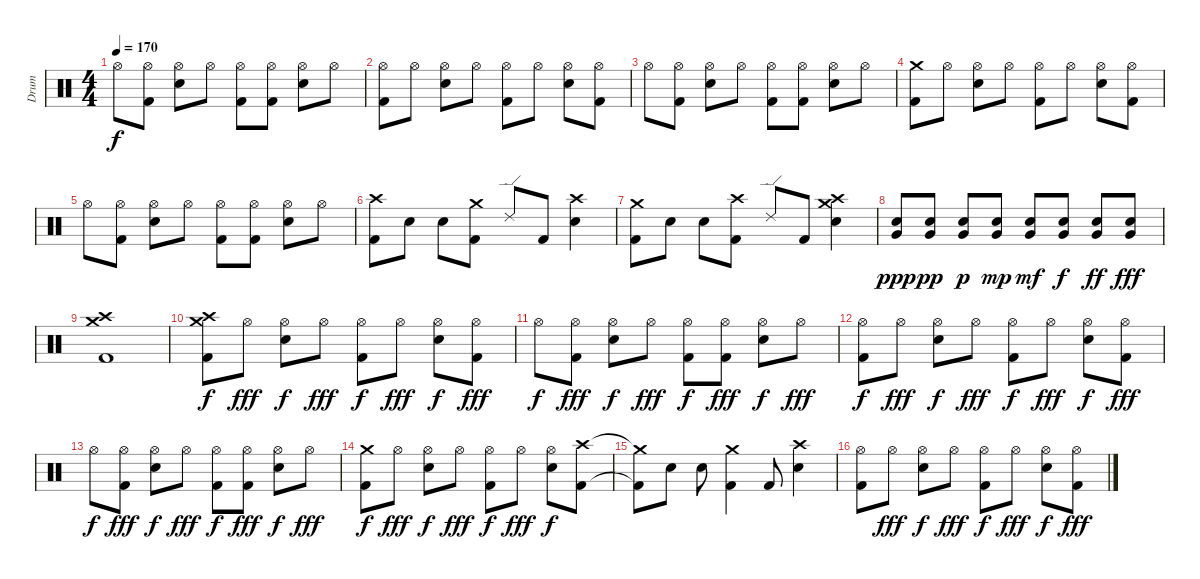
\track ("Drum" "Drum") {instrument percussion}
\staff {score}
\articulation defaults
\ts (4 4)
\tempo 170
\clef neutral
\ks c "Hi-Hat (open)".8{dy f}
("Kick (hit) 2" "Hi-Hat (open)").8 ("Electric Snare (hit)" "Hi-Hat (open)").8 "Hi-Hat (open)".8 ("Kick (hit) 2" "Hi-Hat (open)").8 ("Kick (hit) 2" "Hi-Hat (open)").8 ("Electric Snare (hit)" "Hi-Hat (open)").8 "Hi-Hat (open)".8 |
("Kick (hit) 2" "Hi-Hat (open)").8 "Hi-Hat (open)".8 ("Electric Snare (hit)" "Hi-Hat (open)").8 "Hi-Hat (open)".8 ("Kick (hit) 2" "Hi-Hat (open)").8 "Hi-Hat (open)".8 ("Electric Snare (hit)" "Hi-Hat (open)").8 ("Kick (hit) 2" "Hi-Hat (open)").8 |
"Hi-Hat (open)".8 ("Kick (hit) 2" "Hi-Hat (open)").8 ("Electric Snare (hit)" "Hi-Hat (open)").8 "Hi-Hat (open)".8 ("Kick (hit) 2" "Hi-Hat (open)").8 ("Kick (hit) 2" "Hi-Hat (open)").8 ("Electric Snare (hit)" "Hi-Hat (open)").8 "Hi-Hat (open)".8 |
("Kick (hit) 2" "Crash medium (hit)").8 "Hi-Hat (open)".8 ("Electric Snare (hit)" "Hi-Hat (open)").8 "Hi-Hat (open)".8 ("Kick (hit) 2" "Hi-Hat (open)").8 "Hi-Hat (open)".8 ("Electric Snare (hit)" "Hi-Hat (open)").8 ("Kick (hit) 2" "Hi-Hat (open)").8 |
"Hi-Hat (open)".8 ("Kick (hit) 2" "Hi-Hat (open)").8 ("Electric Snare (hit)" "Hi-Hat (open)").8 "Hi-Hat (open)".8 ("Kick (hit) 2" "Hi-Hat (open)").8 ("Kick (hit) 2" "Hi-Hat (open)").8 ("Electric Snare (hit)" "Hi-Hat (open)").8 "Hi-Hat (open)".8 |
("Kick (hit) 2" "Crash high (hit)").8 "Electric Snare (hit)".8 "Electric Snare (hit)".8 ("Kick (hit) 2" "Crash medium (hit)").8 "Ride (edge) 2".8 "Kick (hit) 2".8 ("Electric Snare (hit)" "Crash high (hit)").4 |
("Kick (hit) 2" "Crash medium (hit)").8 "Electric Snare (hit)".8 "Electric Snare (hit)".8 ("Kick (hit) 2" "Crash high (hit)").8 "Ride (edge) 2".8 "Kick (hit) 2".8 ("Electric Snare (hit)" "Crash medium (hit)" "Crash high (hit)").4 |
("Electric Snare (hit)" "Very Low Tom (hit)").8{dy ppp} ("Electric Snare (hit)" "Very Low Tom (hit)").8{dy pp} ("Electric Snare (hit)" "Very Low Tom (hit)").8{dy p} ("Electric Snare (hit)" "Very Low Tom (hit)").8{dy mp} ("Electric Snare (hit)" "Very Low Tom (hit)").8{dy mf} ("Electric Snare (hit)" "Very Low Tom (hit)").8{dy f} ("Electric Snare (hit)" "Very Low Tom (hit)").8{dy ff} ("Electric Snare (hit)" "Very Low Tom (hit)").8{dy fff} |
("Crash high (hit)" "Crash medium (hit)" "Kick (hit) 2").1 |
("Kick (hit) 2" "Crash medium (hit)" "Crash high (hit)").8{dy f} "Hi-Hat (open)".8{dy fff} ("Electric Snare (hit)" "Hi-Hat (open)").8{dy f} "Hi-Hat (open)".8{dy fff} ("Kick (hit) 2" "Hi-Hat (open)").8{dy f} "Hi-Hat (open)".8{dy fff} ("Electric Snare (hit)" "Hi-Hat (open)").8{dy f} ("Kick (hit) 2" "Hi-Hat (open)").8{dy fff} |
"Hi-Hat (open)".8{dy f} ("Kick (hit) 2" "Hi-Hat (open)").8{dy fff} ("Electric Snare (hit)" "Hi-Hat (open)").8{dy f} "Hi-Hat (open)".8{dy fff} ("Kick (hit) 2" "Hi-Hat (open)").8{dy f} ("Kick (hit) 2" "Hi-Hat (open)").8{dy fff} ("Electric Snare (hit)" "Hi-Hat (open)").8{dy f} "Hi-Hat (open)".8{dy fff} |
("Kick (hit) 2" "Hi-Hat (open)").8{dy f} "Hi-Hat (open)".8{dy fff} ("Electric Snare (hit)" "Hi-Hat (open)").8{dy f} "Hi-Hat (open)".8{dy fff} ("Kick (hit) 2" "Hi-Hat (open)").8{dy f} "Hi-Hat (open)".8{dy fff} ("Electric Snare (hit)" "Hi-Hat (open)").8{dy f} ("Kick (hit) 2" "Hi-Hat (open)").8{dy fff} |
"Hi-Hat (open)".8{dy f} ("Kick (hit) 2" "Hi-Hat (open)").8{dy fff} ("Electric Snare (hit)" "Hi-Hat (open)").8{dy f} "Hi-Hat (open)".8{dy fff} ("Kick (hit) 2" "Hi-Hat (open)").8{dy f} ("Kick (hit) 2" "Hi-Hat (open)").8{dy fff} ("Electric Snare (hit)" "Hi-Hat (open)").8{dy f} "Hi-Hat (open)".8{dy fff} |
("Kick (hit) 2" "Crash medium (hit)").8{dy f} "Hi-Hat (open)".8{dy fff} ("Electric Snare (hit)" "Hi-Hat (open)").8{dy f} "Hi-Hat (open)".8{dy fff} ("Kick (hit) 2" "Hi-Hat (open)").8{dy f} "Hi-Hat (open)".8{dy fff} ("Electric Snare (hit)" "Hi-Hat (open)").8{dy f} ("Kick (hit) 2" "Crash high (hit)").8 |
("Kick (hit) 2"{t} "Crash medium (hit)"{t}).8 "Electric Snare (hit)".8 "Electric Snare (hit)".8 ("Kick (hit) 2" "Crash medium (hit)").4 "Kick (hit) 2".8 ("Electric Snare (hit)" "Crash high (hit)").4 |
("Kick (hit) 2" "Hi-Hat (open)").8 "Hi-Hat (open)".8{dy fff} ("Electric Snare (hit)" "Hi-Hat (open)").8{dy f} "Hi-Hat (open)".8{dy fff} ("Kick (hit) 2" "Hi-Hat (open)").8{dy f} "Hi-Hat (open)".8{dy fff} ("Electric Snare (hit)" "Hi-Hat (open)").8{dy f} ("Kick (hit) 2" "Hi-Hat (open)").8{dy fff}
